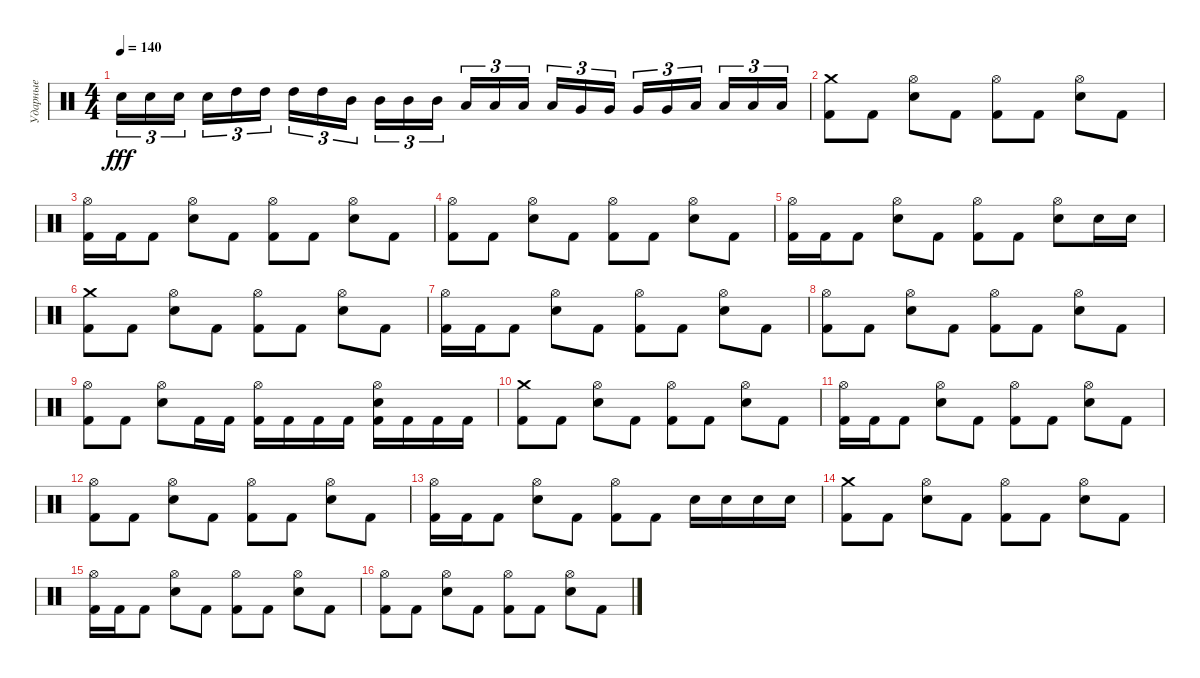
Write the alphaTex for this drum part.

\track ("Ударные" "Ударные") {instrument percussion}
\staff {score}
\articulation defaults
\ts (4 4)
\tempo 140
\clef neutral
\ks c "Electric Snare (hit)".16{tu (3 2) dy fff} "Electric Snare (hit)".16{tu (3 2)} "Electric Snare (hit)".16{tu (3 2) beam splitsecondary} "Electric Snare (hit)".16{tu (3 2)} "High Tom (hit)".16{tu (3 2)} "High Tom (hit)".16{tu (3 2)} "High Tom (hit)".16{tu (3 2)} "High Tom (hit)".16{tu (3 2)} "Mid Tom (hit)".16{tu (3 2) beam splitsecondary} "Mid Tom (hit)".16{tu (3 2)} "Mid Tom (hit)".16{tu (3 2)} "Mid Tom (hit)".16{tu (3 2)} "Low Tom (hit)".16{tu (3 2)} "Low Tom (hit)".16{tu (3 2)} "Low Tom (hit)".16{tu (3 2) beam splitsecondary} "Low Tom (hit)".16{tu (3 2)} "Very Low Tom (hit)".16{tu (3 2)} "Very Low Tom (hit)".16{tu (3 2)} "Very Low Tom (hit)".16{tu (3 2)} "Very Low Tom (hit)".16{tu (3 2)} "Low Floor Tom (hit)".16{tu (3 2) beam splitsecondary} "Low Floor Tom (hit)".16{tu (3 2)} "Low Floor Tom (hit)".16{tu (3 2)} "Low Floor Tom (hit)".16{tu (3 2)}
|
("Crash medium (hit)" "Kick (hit) 2").8 "Kick (hit) 2".8 ("Hi-Hat (open)" "Electric Snare (hit)").8 "Kick (hit) 2".8 ("Hi-Hat (open)" "Kick (hit) 2").8 "Kick (hit) 2".8 ("Hi-Hat (open)" "Electric Snare (hit)").8 "Kick (hit) 2".8 |
("Hi-Hat (open)" "Kick (hit) 2").16 "Kick (hit) 2".16 "Kick (hit) 2".8 ("Hi-Hat (open)" "Electric Snare (hit)").8 "Kick (hit) 2".8 ("Hi-Hat (open)" "Kick (hit) 2").8 "Kick (hit) 2".8 ("Hi-Hat (open)" "Electric Snare (hit)").8 "Kick (hit) 2".8 |
("Hi-Hat (open)" "Kick (hit) 2").8 "Kick (hit) 2".8 ("Hi-Hat (open)" "Electric Snare (hit)").8 "Kick (hit) 2".8 ("Hi-Hat (open)" "Kick (hit) 2").8 "Kick (hit) 2".8 ("Hi-Hat (open)" "Electric Snare (hit)").8 "Kick (hit) 2".8 |
("Hi-Hat (open)" "Kick (hit) 2").16 "Kick (hit) 2".16 "Kick (hit) 2".8 ("Hi-Hat (open)" "Electric Snare (hit)").8 "Kick (hit) 2".8 ("Hi-Hat (open)" "Kick (hit) 2").8 "Kick (hit) 2".8 ("Hi-Hat (open)" "Electric Snare (hit)").8 "Electric Snare (hit)".16 "Electric Snare (hit)".16 |
("Crash medium (hit)" "Kick (hit) 2").8 "Kick (hit) 2".8 ("Hi-Hat (open)" "Electric Snare (hit)").8 "Kick (hit) 2".8 ("Hi-Hat (open)" "Kick (hit) 2").8 "Kick (hit) 2".8 ("Hi-Hat (open)" "Electric Snare (hit)").8 "Kick (hit) 2".8 |
("Hi-Hat (open)" "Kick (hit) 2").16 "Kick (hit) 2".16 "Kick (hit) 2".8 ("Hi-Hat (open)" "Electric Snare (hit)").8 "Kick (hit) 2".8 ("Hi-Hat (open)" "Kick (hit) 2").8 "Kick (hit) 2".8 ("Hi-Hat (open)" "Electric Snare (hit)").8 "Kick (hit) 2".8 |
("Hi-Hat (open)" "Kick (hit) 2").8 "Kick (hit) 2".8 ("Hi-Hat (open)" "Electric Snare (hit)").8 "Kick (hit) 2".8 ("Hi-Hat (open)" "Kick (hit) 2").8 "Kick (hit) 2".8 ("Hi-Hat (open)" "Electric Snare (hit)").8 "Kick (hit) 2".8 |
("Hi-Hat (open)" "Kick (hit) 2").8 "Kick (hit) 2".8 ("Hi-Hat (open)" "Electric Snare (hit)").8 "Kick (hit) 2".16 "Kick (hit) 2".16 ("Hi-Hat (open)" "Kick (hit) 2").16 "Kick (hit) 2".16 "Kick (hit) 2".16 "Kick (hit) 2".16 ("Hi-Hat (open)" "Electric Snare (hit)" "Kick (hit) 2").16 "Kick (hit) 2".16 "Kick (hit) 2".16 "Kick (hit) 2".16 |
("Crash medium (hit)" "Kick (hit) 2").8 "Kick (hit) 2".8 ("Hi-Hat (open)" "Electric Snare (hit)").8 "Kick (hit) 2".8 ("Hi-Hat (open)" "Kick (hit) 2").8 "Kick (hit) 2".8 ("Hi-Hat (open)" "Electric Snare (hit)").8 "Kick (hit) 2".8 |
("Hi-Hat (open)" "Kick (hit) 2").16 "Kick (hit) 2".16 "Kick (hit) 2".8 ("Hi-Hat (open)" "Electric Snare (hit)").8 "Kick (hit) 2".8 ("Hi-Hat (open)" "Kick (hit) 2").8 "Kick (hit) 2".8 ("Hi-Hat (open)" "Electric Snare (hit)").8 "Kick (hit) 2".8 |
("Hi-Hat (open)" "Kick (hit) 2").8 "Kick (hit) 2".8 ("Hi-Hat (open)" "Electric Snare (hit)").8 "Kick (hit) 2".8 ("Hi-Hat (open)" "Kick (hit) 2").8 "Kick (hit) 2".8 ("Hi-Hat (open)" "Electric Snare (hit)").8 "Kick (hit) 2".8 |
("Hi-Hat (open)" "Kick (hit) 2").16 "Kick (hit) 2".16 "Kick (hit) 2".8 ("Hi-Hat (open)" "Electric Snare (hit)").8 "Kick (hit) 2".8 ("Hi-Hat (open)" "Kick (hit) 2").8 "Kick (hit) 2".8 "Electric Snare (hit)".16 "Electric Snare (hit)".16 "Electric Snare (hit)".16 "Electric Snare (hit)".16 |
("Crash medium (hit)" "Kick (hit) 2").8 "Kick (hit) 2".8 ("Hi-Hat (open)" "Electric Snare (hit)").8 "Kick (hit) 2".8 ("Hi-Hat (open)" "Kick (hit) 2").8 "Kick (hit) 2".8 ("Hi-Hat (open)" "Electric Snare (hit)").8 "Kick (hit) 2".8 |
("Hi-Hat (open)" "Kick (hit) 2").16 "Kick (hit) 2".16 "Kick (hit) 2".8 ("Hi-Hat (open)" "Electric Snare (hit)").8 "Kick (hit) 2".8 ("Hi-Hat (open)" "Kick (hit) 2").8 "Kick (hit) 2".8 ("Hi-Hat (open)" "Electric Snare (hit)").8 "Kick (hit) 2".8 |
("Hi-Hat (open)" "Kick (hit) 2").8 "Kick (hit) 2".8 ("Hi-Hat (open)" "Electric Snare (hit)").8 "Kick (hit) 2".8 ("Hi-Hat (open)" "Kick (hit) 2").8 "Kick (hit) 2".8 ("Hi-Hat (open)" "Electric Snare (hit)").8 "Kick (hit) 2".8
